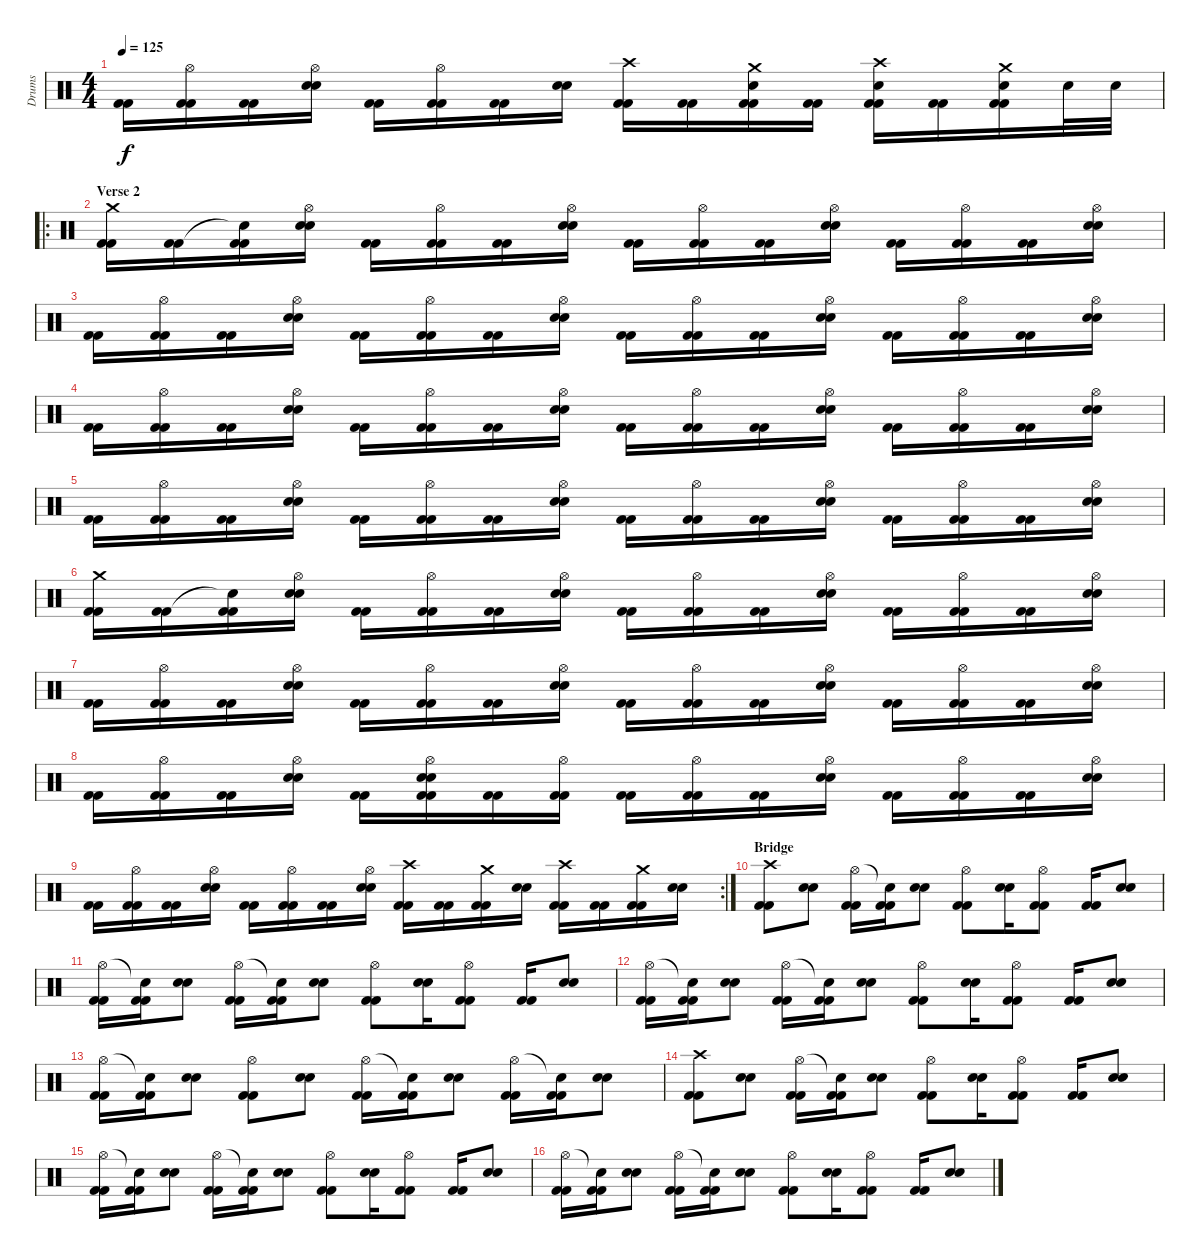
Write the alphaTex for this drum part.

\track ("Drums" "Drums") {instrument percussion}
\staff {score}
\articulation defaults
\ts (4 4)
\tempo 125
\clef neutral
\ks c
("Kick (hit) 2" "Kick (hit) 2").16{dy f} ("Hi-Hat (open)" "Kick (hit) 2" "Kick (hit) 2").16 ("Kick (hit) 2" "Kick (hit) 2").16 ("Hi-Hat (open)" "Snare (hit) 2" "Snare (hit) 2").16 ("Kick (hit) 2" "Kick (hit) 2").16 ("Hi-Hat (open)" "Kick (hit) 2" "Kick (hit) 2").16 ("Kick (hit) 2" "Kick (hit) 2").16 ("Snare (hit) 2" "Snare (hit) 2").16 ("Crash high (hit)" "Kick (hit) 2" "Kick (hit) 2").16 ("Kick (hit) 2" "Kick (hit) 2").16 ("Crash medium (hit)" "Snare (hit) 2" "Kick (hit) 2" "Kick (hit) 2").16 ("Kick (hit) 2" "Kick (hit) 2").16 ("Crash high (hit)" "Snare (hit) 2" "Kick (hit) 2" "Kick (hit) 2").16 ("Kick (hit) 2" "Kick (hit) 2").16 ("Crash medium (hit)" "Snare (hit) 2" "Kick (hit) 2" "Kick (hit) 2").16 "Snare (hit) 2".32 "Snare (hit) 2".32 |
\ro
\section ("" "Verse 2")
("Crash medium (hit)" "Kick (hit) 2" "Kick (hit) 2").16 ("Kick (hit) 2" "Kick (hit) 2").16 ("Snare (hit)"{t} "Kick (hit) 2" "Kick (hit) 2").16 ("Hi-Hat (open)" "Snare (hit) 2" "Snare (hit) 2").16 ("Kick (hit) 2" "Kick (hit) 2").16 ("Hi-Hat (open)" "Kick (hit) 2" "Kick (hit) 2").16 ("Kick (hit) 2" "Kick (hit) 2").16 ("Hi-Hat (open)" "Snare (hit) 2" "Snare (hit) 2").16 ("Kick (hit) 2" "Kick (hit) 2").16 ("Hi-Hat (open)" "Kick (hit) 2" "Kick (hit) 2").16 ("Kick (hit) 2" "Kick (hit) 2").16 ("Hi-Hat (open)" "Snare (hit) 2" "Snare (hit) 2").16 ("Kick (hit) 2" "Kick (hit) 2").16 ("Hi-Hat (open)" "Kick (hit) 2" "Kick (hit) 2").16 ("Kick (hit) 2" "Kick (hit) 2").16 ("Hi-Hat (open)" "Snare (hit) 2" "Snare (hit) 2").16 |
("Kick (hit) 2" "Kick (hit) 2").16 ("Hi-Hat (open)" "Kick (hit) 2" "Kick (hit) 2").16 ("Kick (hit) 2" "Kick (hit) 2").16 ("Hi-Hat (open)" "Snare (hit) 2" "Snare (hit) 2").16 ("Kick (hit) 2" "Kick (hit) 2").16 ("Hi-Hat (open)" "Kick (hit) 2" "Kick (hit) 2").16 ("Kick (hit) 2" "Kick (hit) 2").16 ("Hi-Hat (open)" "Snare (hit) 2" "Snare (hit) 2").16 ("Kick (hit) 2" "Kick (hit) 2").16 ("Hi-Hat (open)" "Kick (hit) 2" "Kick (hit) 2").16 ("Kick (hit) 2" "Kick (hit) 2").16 ("Hi-Hat (open)" "Snare (hit) 2" "Snare (hit) 2").16 ("Kick (hit) 2" "Kick (hit) 2").16 ("Hi-Hat (open)" "Kick (hit) 2" "Kick (hit) 2").16 ("Kick (hit) 2" "Kick (hit) 2").16 ("Hi-Hat (open)" "Snare (hit) 2" "Snare (hit) 2").16 |
("Kick (hit) 2" "Kick (hit) 2").16 ("Hi-Hat (open)" "Kick (hit) 2" "Kick (hit) 2").16 ("Kick (hit) 2" "Kick (hit) 2").16 ("Hi-Hat (open)" "Snare (hit) 2" "Snare (hit) 2").16 ("Kick (hit) 2" "Kick (hit) 2").16 ("Hi-Hat (open)" "Kick (hit) 2" "Kick (hit) 2").16 ("Kick (hit) 2" "Kick (hit) 2").16 ("Hi-Hat (open)" "Snare (hit) 2" "Snare (hit) 2").16 ("Kick (hit) 2" "Kick (hit) 2").16 ("Hi-Hat (open)" "Kick (hit) 2" "Kick (hit) 2").16 ("Kick (hit) 2" "Kick (hit) 2").16 ("Hi-Hat (open)" "Snare (hit) 2" "Snare (hit) 2").16 ("Kick (hit) 2" "Kick (hit) 2").16 ("Hi-Hat (open)" "Kick (hit) 2" "Kick (hit) 2").16 ("Kick (hit) 2" "Kick (hit) 2").16 ("Hi-Hat (open)" "Snare (hit) 2" "Snare (hit) 2").16 |
("Kick (hit) 2" "Kick (hit) 2").16 ("Hi-Hat (open)" "Kick (hit) 2" "Kick (hit) 2").16 ("Kick (hit) 2" "Kick (hit) 2").16 ("Hi-Hat (open)" "Snare (hit) 2" "Snare (hit) 2").16 ("Kick (hit) 2" "Kick (hit) 2").16 ("Hi-Hat (open)" "Kick (hit) 2" "Kick (hit) 2").16 ("Kick (hit) 2" "Kick (hit) 2").16 ("Hi-Hat (open)" "Snare (hit) 2" "Snare (hit) 2").16 ("Kick (hit) 2" "Kick (hit) 2").16 ("Hi-Hat (open)" "Kick (hit) 2" "Kick (hit) 2").16 ("Kick (hit) 2" "Kick (hit) 2").16 ("Hi-Hat (open)" "Snare (hit) 2" "Snare (hit) 2").16 ("Kick (hit) 2" "Kick (hit) 2").16 ("Hi-Hat (open)" "Kick (hit) 2" "Kick (hit) 2").16 ("Kick (hit) 2" "Kick (hit) 2").16 ("Hi-Hat (open)" "Snare (hit) 2" "Snare (hit) 2").16 |
("Crash medium (hit)" "Kick (hit) 2" "Kick (hit) 2").16 ("Kick (hit) 2" "Kick (hit) 2").16 ("Snare (hit)"{t} "Kick (hit) 2" "Kick (hit) 2").16 ("Hi-Hat (open)" "Snare (hit) 2" "Snare (hit) 2").16 ("Kick (hit) 2" "Kick (hit) 2").16 ("Hi-Hat (open)" "Kick (hit) 2" "Kick (hit) 2").16 ("Kick (hit) 2" "Kick (hit) 2").16 ("Hi-Hat (open)" "Snare (hit) 2" "Snare (hit) 2").16 ("Kick (hit) 2" "Kick (hit) 2").16 ("Hi-Hat (open)" "Kick (hit) 2" "Kick (hit) 2").16 ("Kick (hit) 2" "Kick (hit) 2").16 ("Hi-Hat (open)" "Snare (hit) 2" "Snare (hit) 2").16 ("Kick (hit) 2" "Kick (hit) 2").16 ("Hi-Hat (open)" "Kick (hit) 2" "Kick (hit) 2").16 ("Kick (hit) 2" "Kick (hit) 2").16 ("Hi-Hat (open)" "Snare (hit) 2" "Snare (hit) 2").16 |
("Kick (hit) 2" "Kick (hit) 2").16 ("Hi-Hat (open)" "Kick (hit) 2" "Kick (hit) 2").16 ("Kick (hit) 2" "Kick (hit) 2").16 ("Hi-Hat (open)" "Snare (hit) 2" "Snare (hit) 2").16 ("Kick (hit) 2" "Kick (hit) 2").16 ("Hi-Hat (open)" "Kick (hit) 2" "Kick (hit) 2").16 ("Kick (hit) 2" "Kick (hit) 2").16 ("Hi-Hat (open)" "Snare (hit) 2" "Snare (hit) 2").16 ("Kick (hit) 2" "Kick (hit) 2").16 ("Hi-Hat (open)" "Kick (hit) 2" "Kick (hit) 2").16 ("Kick (hit) 2" "Kick (hit) 2").16 ("Hi-Hat (open)" "Snare (hit) 2" "Snare (hit) 2").16 ("Kick (hit) 2" "Kick (hit) 2").16 ("Hi-Hat (open)" "Kick (hit) 2" "Kick (hit) 2").16 ("Kick (hit) 2" "Kick (hit) 2").16 ("Hi-Hat (open)" "Snare (hit) 2" "Snare (hit) 2").16 |
("Kick (hit) 2" "Kick (hit) 2").16 ("Hi-Hat (open)" "Kick (hit) 2" "Kick (hit) 2").16 ("Kick (hit) 2" "Kick (hit) 2").16 ("Hi-Hat (open)" "Snare (hit) 2" "Snare (hit) 2").16 ("Kick (hit) 2" "Kick (hit) 2").16 ("Hi-Hat (open)" "Snare (hit) 2" "Snare (hit) 2" "Kick (hit) 2" "Kick (hit) 2").16 ("Kick (hit) 2" "Kick (hit) 2").16 ("Hi-Hat (open)" "Kick (hit) 2" "Kick (hit) 2").16 ("Kick (hit) 2" "Kick (hit) 2").16 ("Hi-Hat (open)" "Kick (hit) 2" "Kick (hit) 2").16 ("Kick (hit) 2" "Kick (hit) 2").16 ("Hi-Hat (open)" "Snare (hit) 2" "Snare (hit) 2").16 ("Kick (hit) 2" "Kick (hit) 2").16 ("Hi-Hat (open)" "Kick (hit) 2" "Kick (hit) 2").16 ("Kick (hit) 2" "Kick (hit) 2").16 ("Hi-Hat (open)" "Snare (hit) 2" "Snare (hit) 2").16 |
\rc 2
("Kick (hit) 2" "Kick (hit) 2").16 ("Hi-Hat (open)" "Kick (hit) 2" "Kick (hit) 2").16 ("Kick (hit) 2" "Kick (hit) 2").16 ("Hi-Hat (open)" "Snare (hit) 2" "Snare (hit) 2").16 ("Kick (hit) 2" "Kick (hit) 2").16 ("Hi-Hat (open)" "Kick (hit) 2" "Kick (hit) 2").16 ("Kick (hit) 2" "Kick (hit) 2").16 ("Hi-Hat (open)" "Snare (hit) 2" "Snare (hit) 2").16 ("Crash high (hit)" "Kick (hit) 2" "Kick (hit) 2").16 ("Kick (hit) 2" "Kick (hit) 2").16 ("Crash medium (hit)" "Kick (hit) 2" "Kick (hit) 2").16 ("Snare (hit) 2" "Snare (hit) 2").16 ("Crash high (hit)" "Kick (hit) 2" "Kick (hit) 2").16 ("Kick (hit) 2" "Kick (hit) 2").16 ("Crash medium (hit)" "Kick (hit) 2" "Kick (hit) 2").16 ("Snare (hit) 2" "Snare (hit) 2").16 |
\section ("" "Bridge")
("Crash high (hit)" "Kick (hit) 2" "Kick (hit) 2").8 ("Snare (hit) 2" "Snare (hit) 2").8 ("Hi-Hat (open)" "Kick (hit) 2" "Kick (hit) 2").16 ("Snare (hit)"{t} "Kick (hit) 2" "Kick (hit) 2").16 ("Snare (hit) 2" "Snare (hit) 2").8 ("Hi-Hat (open)" "Kick (hit) 2" "Kick (hit) 2").8 ("Snare (hit) 2" "Snare (hit) 2").16 ("Hi-Hat (open)" "Kick (hit) 2" "Kick (hit) 2").8 ("Kick (hit) 2" "Kick (hit) 2").16 ("Snare (hit) 2" "Snare (hit) 2").8 |
("Hi-Hat (open)" "Kick (hit) 2" "Kick (hit) 2").16 ("Snare (hit)"{t} "Kick (hit) 2" "Kick (hit) 2").16 ("Snare (hit) 2" "Snare (hit) 2").8 ("Hi-Hat (open)" "Kick (hit) 2" "Kick (hit) 2").16 ("Snare (hit)"{t} "Kick (hit) 2" "Kick (hit) 2").16 ("Snare (hit) 2" "Snare (hit) 2").8 ("Hi-Hat (open)" "Kick (hit) 2" "Kick (hit) 2").8 ("Snare (hit) 2" "Snare (hit) 2").16 ("Hi-Hat (open)" "Kick (hit) 2" "Kick (hit) 2").8 ("Kick (hit) 2" "Kick (hit) 2").16 ("Snare (hit) 2" "Snare (hit) 2").8 |
("Hi-Hat (open)" "Kick (hit) 2" "Kick (hit) 2").16 ("Snare (hit)"{t} "Kick (hit) 2" "Kick (hit) 2").16 ("Snare (hit) 2" "Snare (hit) 2").8 ("Hi-Hat (open)" "Kick (hit) 2" "Kick (hit) 2").16 ("Snare (hit)"{t} "Kick (hit) 2" "Kick (hit) 2").16 ("Snare (hit) 2" "Snare (hit) 2").8 ("Hi-Hat (open)" "Kick (hit) 2" "Kick (hit) 2").8 ("Snare (hit) 2" "Snare (hit) 2").16 ("Hi-Hat (open)" "Kick (hit) 2" "Kick (hit) 2").8 ("Kick (hit) 2" "Kick (hit) 2").16 ("Snare (hit) 2" "Snare (hit) 2").8 |
("Hi-Hat (open)" "Kick (hit) 2" "Kick (hit) 2").16 ("Snare (hit)"{t} "Kick (hit) 2" "Kick (hit) 2").16 ("Snare (hit) 2" "Snare (hit) 2").8 ("Hi-Hat (open)" "Kick (hit) 2" "Kick (hit) 2").8 ("Snare (hit) 2" "Snare (hit) 2").8 ("Hi-Hat (open)" "Kick (hit) 2" "Kick (hit) 2").16 ("Snare (hit)"{t} "Kick (hit) 2" "Kick (hit) 2").16 ("Snare (hit) 2" "Snare (hit) 2").8 ("Hi-Hat (open)" "Kick (hit) 2" "Kick (hit) 2").16 ("Snare (hit)"{t} "Kick (hit) 2" "Kick (hit) 2").16 ("Snare (hit) 2" "Snare (hit) 2").8 |
("Crash high (hit)" "Kick (hit) 2" "Kick (hit) 2").8 ("Snare (hit) 2" "Snare (hit) 2").8 ("Hi-Hat (open)" "Kick (hit) 2" "Kick (hit) 2").16 ("Snare (hit)"{t} "Kick (hit) 2" "Kick (hit) 2").16 ("Snare (hit) 2" "Snare (hit) 2").8 ("Hi-Hat (open)" "Kick (hit) 2" "Kick (hit) 2").8 ("Snare (hit) 2" "Snare (hit) 2").16 ("Hi-Hat (open)" "Kick (hit) 2" "Kick (hit) 2").8 ("Kick (hit) 2" "Kick (hit) 2").16 ("Snare (hit) 2" "Snare (hit) 2").8 |
("Hi-Hat (open)" "Kick (hit) 2" "Kick (hit) 2").16 ("Snare (hit)"{t} "Kick (hit) 2" "Kick (hit) 2").16 ("Snare (hit) 2" "Snare (hit) 2").8 ("Hi-Hat (open)" "Kick (hit) 2" "Kick (hit) 2").16 ("Snare (hit)"{t} "Kick (hit) 2" "Kick (hit) 2").16 ("Snare (hit) 2" "Snare (hit) 2").8 ("Hi-Hat (open)" "Kick (hit) 2" "Kick (hit) 2").8 ("Snare (hit) 2" "Snare (hit) 2").16 ("Hi-Hat (open)" "Kick (hit) 2" "Kick (hit) 2").8 ("Kick (hit) 2" "Kick (hit) 2").16 ("Snare (hit) 2" "Snare (hit) 2").8 |
("Hi-Hat (open)" "Kick (hit) 2" "Kick (hit) 2").16 ("Snare (hit)"{t} "Kick (hit) 2" "Kick (hit) 2").16 ("Snare (hit) 2" "Snare (hit) 2").8 ("Hi-Hat (open)" "Kick (hit) 2" "Kick (hit) 2").16 ("Snare (hit)"{t} "Kick (hit) 2" "Kick (hit) 2").16 ("Snare (hit) 2" "Snare (hit) 2").8 ("Hi-Hat (open)" "Kick (hit) 2" "Kick (hit) 2").8 ("Snare (hit) 2" "Snare (hit) 2").16 ("Hi-Hat (open)" "Kick (hit) 2" "Kick (hit) 2").8 ("Kick (hit) 2" "Kick (hit) 2").16 ("Snare (hit) 2" "Snare (hit) 2").8
